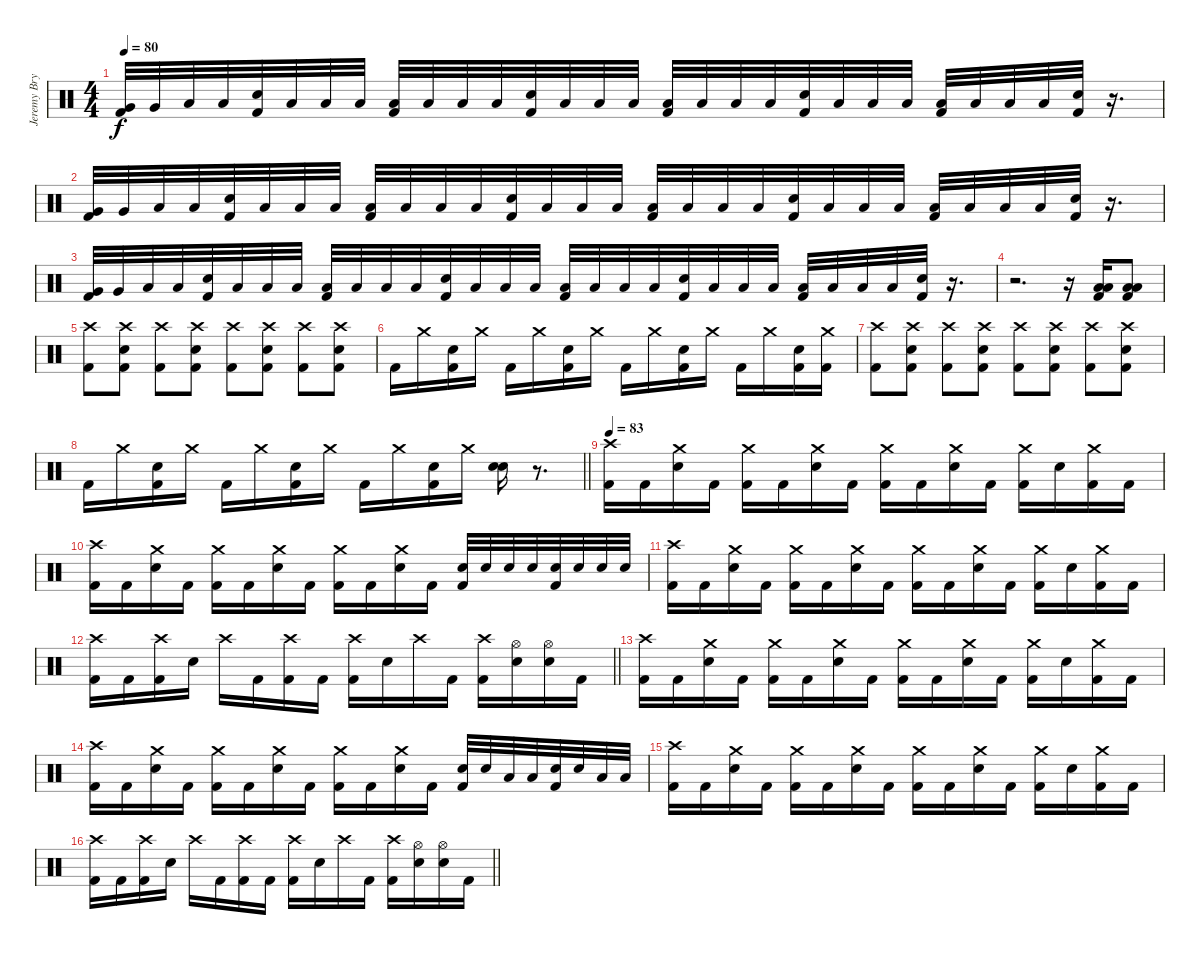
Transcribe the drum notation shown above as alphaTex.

\track ("Jeremy Bryan - Drums" "Jeremy Bry") {instrument percussion}
\staff {score}
\articulation defaults
\ts (4 4)
\tempo 80
\clef neutral
\ks c
("Very Low Tom (hit)" "Kick (hit) 2").32{dy f} "Very Low Tom (hit)".32 "Low Floor Tom (hit)".32 "Low Floor Tom (hit)".32 ("Electric Snare (hit)" "Kick (hit) 2").32 "Low Floor Tom (hit)".32 "Low Floor Tom (hit)".32 "Low Floor Tom (hit)".32 ("Low Floor Tom (hit)" "Kick (hit) 2").32 "Low Floor Tom (hit)".32 "Low Floor Tom (hit)".32 "Low Floor Tom (hit)".32 ("Electric Snare (hit)" "Kick (hit) 2").32 "Low Floor Tom (hit)".32 "Low Floor Tom (hit)".32 "Low Floor Tom (hit)".32 ("Low Floor Tom (hit)" "Kick (hit) 2").32 "Low Floor Tom (hit)".32 "Low Floor Tom (hit)".32 "Low Floor Tom (hit)".32 ("Electric Snare (hit)" "Kick (hit) 2").32 "Low Floor Tom (hit)".32 "Low Floor Tom (hit)".32 "Low Floor Tom (hit)".32 ("Low Floor Tom (hit)" "Kick (hit) 2").32 "Low Floor Tom (hit)".32 "Low Floor Tom (hit)".32 "Low Floor Tom (hit)".32 ("Electric Snare (hit)" "Kick (hit) 2").32 r.16{d} |
("Very Low Tom (hit)" "Kick (hit) 2").32 "Very Low Tom (hit)".32 "Low Floor Tom (hit)".32 "Low Floor Tom (hit)".32 ("Electric Snare (hit)" "Kick (hit) 2").32 "Low Floor Tom (hit)".32 "Low Floor Tom (hit)".32 "Low Floor Tom (hit)".32 ("Low Floor Tom (hit)" "Kick (hit) 2").32 "Low Floor Tom (hit)".32 "Low Floor Tom (hit)".32 "Low Floor Tom (hit)".32 ("Electric Snare (hit)" "Kick (hit) 2").32 "Low Floor Tom (hit)".32 "Low Floor Tom (hit)".32 "Low Floor Tom (hit)".32 ("Low Floor Tom (hit)" "Kick (hit) 2").32 "Low Floor Tom (hit)".32 "Low Floor Tom (hit)".32 "Low Floor Tom (hit)".32 ("Electric Snare (hit)" "Kick (hit) 2").32 "Low Floor Tom (hit)".32 "Low Floor Tom (hit)".32 "Low Floor Tom (hit)".32 ("Low Floor Tom (hit)" "Kick (hit) 2").32 "Low Floor Tom (hit)".32 "Low Floor Tom (hit)".32 "Low Floor Tom (hit)".32 ("Electric Snare (hit)" "Kick (hit) 2").32 r.16{d} |
("Very Low Tom (hit)" "Kick (hit) 2").32 "Very Low Tom (hit)".32 "Low Floor Tom (hit)".32 "Low Floor Tom (hit)".32 ("Electric Snare (hit)" "Kick (hit) 2").32 "Low Floor Tom (hit)".32 "Low Floor Tom (hit)".32 "Low Floor Tom (hit)".32 ("Low Floor Tom (hit)" "Kick (hit) 2").32 "Low Floor Tom (hit)".32 "Low Floor Tom (hit)".32 "Low Floor Tom (hit)".32 ("Electric Snare (hit)" "Kick (hit) 2").32 "Low Floor Tom (hit)".32 "Low Floor Tom (hit)".32 "Low Floor Tom (hit)".32 ("Low Floor Tom (hit)" "Kick (hit) 2").32 "Low Floor Tom (hit)".32 "Low Floor Tom (hit)".32 "Low Floor Tom (hit)".32 ("Electric Snare (hit)" "Kick (hit) 2").32 "Low Floor Tom (hit)".32 "Low Floor Tom (hit)".32 "Low Floor Tom (hit)".32 ("Low Floor Tom (hit)" "Kick (hit) 2").32 "Low Floor Tom (hit)".32 "Low Floor Tom (hit)".32 "Low Floor Tom (hit)".32 ("Electric Snare (hit)" "Kick (hit) 2").32 r.16{d} |
r.2{d} r.16 ("Low Tom (hit)" "Low Floor Tom (hit)" "Kick (hit) 2").16 ("Low Tom (hit)" "Low Floor Tom (hit)" "Kick (hit) 2").8 |
("Crash high (hit)" "Kick (hit) 2").8 ("Crash high (hit)" "Electric Snare (hit)" "Kick (hit) 2").8 ("Crash high (hit)" "Kick (hit) 2").8 ("Crash high (hit)" "Electric Snare (hit)" "Kick (hit) 2").8 ("Crash high (hit)" "Kick (hit) 2").8 ("Crash high (hit)" "Electric Snare (hit)" "Kick (hit) 2").8 ("Crash high (hit)" "Kick (hit) 2").8 ("Crash high (hit)" "Electric Snare (hit)" "Kick (hit) 2").8 |
"Kick (hit) 2".16 "Crash medium (hit)".16 ("Electric Snare (hit)" "Kick (hit) 2").16 "Crash medium (hit)".16 "Kick (hit) 2".16 "Crash medium (hit)".16 ("Electric Snare (hit)" "Kick (hit) 2").16 "Crash medium (hit)".16 "Kick (hit) 2".16 "Crash medium (hit)".16 ("Electric Snare (hit)" "Kick (hit) 2").16 "Crash medium (hit)".16 "Kick (hit) 2".16 "Crash medium (hit)".16 ("Electric Snare (hit)" "Kick (hit) 2").16 ("Crash medium (hit)" "Kick (hit) 2").16 |
("Crash high (hit)" "Kick (hit) 2").8 ("Crash high (hit)" "Electric Snare (hit)" "Kick (hit) 2").8 ("Crash high (hit)" "Kick (hit) 2").8 ("Crash high (hit)" "Electric Snare (hit)" "Kick (hit) 2").8 ("Crash high (hit)" "Kick (hit) 2").8 ("Crash high (hit)" "Electric Snare (hit)" "Kick (hit) 2").8 ("Crash high (hit)" "Kick (hit) 2").8 ("Crash high (hit)" "Electric Snare (hit)" "Kick (hit) 2").8 |
\barLineRight lightlight "Kick (hit) 2".16 "Crash medium (hit)".16
("Electric Snare (hit)" "Kick (hit) 2").16 "Crash medium (hit)".16 "Kick (hit) 2".16 "Crash medium (hit)".16 ("Electric Snare (hit)" "Kick (hit) 2").16 "Crash medium (hit)".16 "Kick (hit) 2".16 "Crash medium (hit)".16 ("Electric Snare (hit)" "Kick (hit) 2").16 "Crash medium (hit)".16 ("Electric Snare (hit)" "Electric Snare (hit)").16 r.8{d} |
\tempo 83
("Crash high (hit)" "Kick (hit) 2").16 "Kick (hit) 2".16 ("Crash medium (hit)" "Electric Snare (hit)").16 "Kick (hit) 2".16 ("Crash medium (hit)" "Kick (hit) 2").16 "Kick (hit) 2".16 ("Crash medium (hit)" "Electric Snare (hit)").16 "Kick (hit) 2".16 ("Crash medium (hit)" "Kick (hit) 2").16 "Kick (hit) 2".16 ("Crash medium (hit)" "Electric Snare (hit)").16 "Kick (hit) 2".16 ("Crash medium (hit)" "Kick (hit) 2").16 "Electric Snare (hit)".16 ("Crash medium (hit)" "Kick (hit) 2").16 "Kick (hit) 2".16 |
("Crash high (hit)" "Kick (hit) 2").16 "Kick (hit) 2".16 ("Crash medium (hit)" "Electric Snare (hit)").16 "Kick (hit) 2".16 ("Crash medium (hit)" "Kick (hit) 2").16 "Kick (hit) 2".16 ("Crash medium (hit)" "Electric Snare (hit)").16 "Kick (hit) 2".16 ("Crash medium (hit)" "Kick (hit) 2").16 "Kick (hit) 2".16 ("Crash medium (hit)" "Electric Snare (hit)").16 "Kick (hit) 2".16 ("Electric Snare (hit)" "Kick (hit) 2").32 "Electric Snare (hit)".32 "Electric Snare (hit)".32 "Electric Snare (hit)".32 ("Electric Snare (hit)" "Kick (hit) 2").32 "Electric Snare (hit)".32 "Electric Snare (hit)".32 "Electric Snare (hit)".32 |
("Crash high (hit)" "Kick (hit) 2").16 "Kick (hit) 2".16 ("Crash medium (hit)" "Electric Snare (hit)").16 "Kick (hit) 2".16 ("Crash medium (hit)" "Kick (hit) 2").16 "Kick (hit) 2".16 ("Crash medium (hit)" "Electric Snare (hit)").16 "Kick (hit) 2".16 ("Crash medium (hit)" "Kick (hit) 2").16 "Kick (hit) 2".16 ("Crash medium (hit)" "Electric Snare (hit)").16 "Kick (hit) 2".16 ("Crash medium (hit)" "Kick (hit) 2").16 "Electric Snare (hit)".16 ("Crash medium (hit)" "Kick (hit) 2").16 "Kick (hit) 2".16 |
\barLineRight lightlight
("Crash high (hit)" "Kick (hit) 2").16 "Kick (hit) 2".16 ("Crash high (hit)" "Kick (hit) 2").16 "Electric Snare (hit)".16 "Crash high (hit)".16 "Kick (hit) 2".16 ("Crash high (hit)" "Kick (hit) 2").16 "Kick (hit) 2".16 ("Crash high (hit)" "Kick (hit) 2").16 "Electric Snare (hit)".16 "Crash high (hit)".16 "Kick (hit) 2".16 ("Crash high (hit)" "Kick (hit) 2").16 ("Hi-Hat (open)" "Electric Snare (hit)").16 ("Hi-Hat (open)" "Electric Snare (hit)").16 "Kick (hit) 2".16 |
("Crash high (hit)" "Kick (hit) 2").16 "Kick (hit) 2".16 ("Crash medium (hit)" "Electric Snare (hit)").16 "Kick (hit) 2".16 ("Crash medium (hit)" "Kick (hit) 2").16 "Kick (hit) 2".16 ("Crash medium (hit)" "Electric Snare (hit)").16 "Kick (hit) 2".16 ("Crash medium (hit)" "Kick (hit) 2").16 "Kick (hit) 2".16 ("Crash medium (hit)" "Electric Snare (hit)").16 "Kick (hit) 2".16 ("Crash medium (hit)" "Kick (hit) 2").16 "Electric Snare (hit)".16 ("Crash medium (hit)" "Kick (hit) 2").16 "Kick (hit) 2".16 |
("Crash high (hit)" "Kick (hit) 2").16 "Kick (hit) 2".16 ("Crash medium (hit)" "Electric Snare (hit)").16 "Kick (hit) 2".16 ("Crash medium (hit)" "Kick (hit) 2").16 "Kick (hit) 2".16 ("Crash medium (hit)" "Electric Snare (hit)").16 "Kick (hit) 2".16 ("Crash medium (hit)" "Kick (hit) 2").16 "Kick (hit) 2".16 ("Crash medium (hit)" "Electric Snare (hit)").16 "Kick (hit) 2".16 ("Electric Snare (hit)" "Kick (hit) 2").32 "Electric Snare (hit)".32 "Low Tom (hit)".32 "Low Tom (hit)".32 ("Electric Snare (hit)" "Kick (hit) 2").32 "Electric Snare (hit)".32 "Low Tom (hit)".32 "Low Tom (hit)".32 |
("Crash high (hit)" "Kick (hit) 2").16 "Kick (hit) 2".16 ("Crash medium (hit)" "Electric Snare (hit)").16 "Kick (hit) 2".16 ("Crash medium (hit)" "Kick (hit) 2").16 "Kick (hit) 2".16 ("Crash medium (hit)" "Electric Snare (hit)").16 "Kick (hit) 2".16 ("Crash medium (hit)" "Kick (hit) 2").16 "Kick (hit) 2".16 ("Crash medium (hit)" "Electric Snare (hit)").16 "Kick (hit) 2".16 ("Crash medium (hit)" "Kick (hit) 2").16 "Electric Snare (hit)".16 ("Crash medium (hit)" "Kick (hit) 2").16 "Kick (hit) 2".16 |
\barLineRight lightlight
("Crash high (hit)" "Kick (hit) 2").16 "Kick (hit) 2".16 ("Crash high (hit)" "Kick (hit) 2").16 "Electric Snare (hit)".16 "Crash high (hit)".16 "Kick (hit) 2".16 ("Crash high (hit)" "Kick (hit) 2").16 "Kick (hit) 2".16 ("Crash high (hit)" "Kick (hit) 2").16 "Electric Snare (hit)".16 "Crash high (hit)".16 "Kick (hit) 2".16 ("Crash high (hit)" "Kick (hit) 2").16 ("Hi-Hat (open)" "Electric Snare (hit)").16 ("Hi-Hat (open)" "Electric Snare (hit)").16 "Kick (hit) 2".16
